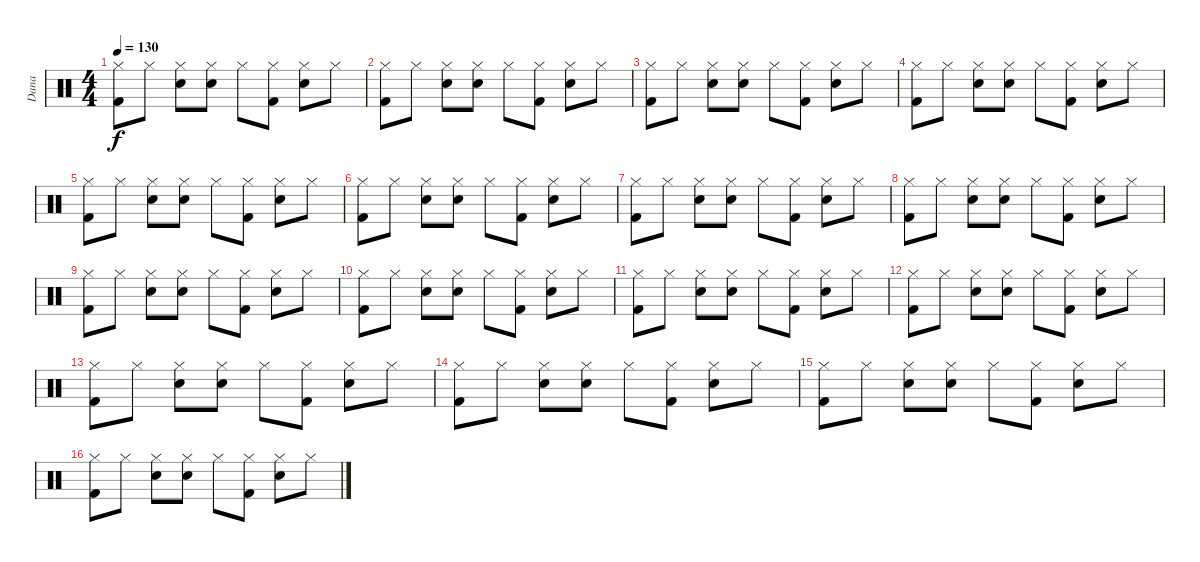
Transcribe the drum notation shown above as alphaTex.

\track ("Dana" "Dana") {instrument percussion}
\staff {score}
\articulation defaults
\ts (4 4)
\tempo 130
\clef neutral
\ks c
("Hi-Hat (closed)" "Kick (hit) 2").8{dy f} "Hi-Hat (closed)".8 ("Hi-Hat (closed)" "Snare (hit) 2").8 ("Hi-Hat (closed)" "Snare (hit) 2").8 "Hi-Hat (closed)".8 ("Hi-Hat (closed)" "Kick (hit) 2").8 ("Hi-Hat (closed)" "Snare (hit) 2").8 "Hi-Hat (closed)".8 |
("Hi-Hat (closed)" "Kick (hit) 2").8 "Hi-Hat (closed)".8 ("Hi-Hat (closed)" "Snare (hit) 2").8 ("Hi-Hat (closed)" "Snare (hit) 2").8 "Hi-Hat (closed)".8 ("Hi-Hat (closed)" "Kick (hit) 2").8 ("Hi-Hat (closed)" "Snare (hit) 2").8 "Hi-Hat (closed)".8 |
("Hi-Hat (closed)" "Kick (hit) 2").8 "Hi-Hat (closed)".8 ("Hi-Hat (closed)" "Snare (hit) 2").8 ("Hi-Hat (closed)" "Snare (hit) 2").8 "Hi-Hat (closed)".8 ("Hi-Hat (closed)" "Kick (hit) 2").8 ("Hi-Hat (closed)" "Snare (hit) 2").8 "Hi-Hat (closed)".8 |
("Hi-Hat (closed)" "Kick (hit) 2").8 "Hi-Hat (closed)".8 ("Hi-Hat (closed)" "Snare (hit) 2").8 ("Hi-Hat (closed)" "Snare (hit) 2").8 "Hi-Hat (closed)".8 ("Hi-Hat (closed)" "Kick (hit) 2").8 ("Hi-Hat (closed)" "Snare (hit) 2").8 "Hi-Hat (closed)".8 |
("Hi-Hat (closed)" "Kick (hit) 2").8 "Hi-Hat (closed)".8 ("Hi-Hat (closed)" "Snare (hit) 2").8 ("Hi-Hat (closed)" "Snare (hit) 2").8 "Hi-Hat (closed)".8 ("Hi-Hat (closed)" "Kick (hit) 2").8 ("Hi-Hat (closed)" "Snare (hit) 2").8 "Hi-Hat (closed)".8 |
("Hi-Hat (closed)" "Kick (hit) 2").8 "Hi-Hat (closed)".8 ("Hi-Hat (closed)" "Snare (hit) 2").8 ("Hi-Hat (closed)" "Snare (hit) 2").8 "Hi-Hat (closed)".8 ("Hi-Hat (closed)" "Kick (hit) 2").8 ("Hi-Hat (closed)" "Snare (hit) 2").8 "Hi-Hat (closed)".8 |
("Hi-Hat (closed)" "Kick (hit) 2").8 "Hi-Hat (closed)".8 ("Hi-Hat (closed)" "Snare (hit) 2").8 ("Hi-Hat (closed)" "Snare (hit) 2").8 "Hi-Hat (closed)".8 ("Hi-Hat (closed)" "Kick (hit) 2").8 ("Hi-Hat (closed)" "Snare (hit) 2").8 "Hi-Hat (closed)".8 |
("Hi-Hat (closed)" "Kick (hit) 2").8 "Hi-Hat (closed)".8 ("Hi-Hat (closed)" "Snare (hit) 2").8 ("Hi-Hat (closed)" "Snare (hit) 2").8 "Hi-Hat (closed)".8 ("Hi-Hat (closed)" "Kick (hit) 2").8 ("Hi-Hat (closed)" "Snare (hit) 2").8 "Hi-Hat (closed)".8 |
("Hi-Hat (closed)" "Kick (hit) 2").8 "Hi-Hat (closed)".8 ("Hi-Hat (closed)" "Snare (hit) 2").8 ("Hi-Hat (closed)" "Snare (hit) 2").8 "Hi-Hat (closed)".8 ("Hi-Hat (closed)" "Kick (hit) 2").8 ("Hi-Hat (closed)" "Snare (hit) 2").8 "Hi-Hat (closed)".8 |
("Hi-Hat (closed)" "Kick (hit) 2").8 "Hi-Hat (closed)".8 ("Hi-Hat (closed)" "Snare (hit) 2").8 ("Hi-Hat (closed)" "Snare (hit) 2").8 "Hi-Hat (closed)".8 ("Hi-Hat (closed)" "Kick (hit) 2").8 ("Hi-Hat (closed)" "Snare (hit) 2").8 "Hi-Hat (closed)".8 |
("Hi-Hat (closed)" "Kick (hit) 2").8 "Hi-Hat (closed)".8 ("Hi-Hat (closed)" "Snare (hit) 2").8 ("Hi-Hat (closed)" "Snare (hit) 2").8 "Hi-Hat (closed)".8 ("Hi-Hat (closed)" "Kick (hit) 2").8 ("Hi-Hat (closed)" "Snare (hit) 2").8 "Hi-Hat (closed)".8 |
("Hi-Hat (closed)" "Kick (hit) 2").8 "Hi-Hat (closed)".8 ("Hi-Hat (closed)" "Snare (hit) 2").8 ("Hi-Hat (closed)" "Snare (hit) 2").8 "Hi-Hat (closed)".8 ("Hi-Hat (closed)" "Kick (hit) 2").8 ("Hi-Hat (closed)" "Snare (hit) 2").8 "Hi-Hat (closed)".8 |
("Hi-Hat (closed)" "Kick (hit) 2").8 "Hi-Hat (closed)".8 ("Hi-Hat (closed)" "Snare (hit) 2").8 ("Hi-Hat (closed)" "Snare (hit) 2").8 "Hi-Hat (closed)".8 ("Hi-Hat (closed)" "Kick (hit) 2").8 ("Hi-Hat (closed)" "Snare (hit) 2").8 "Hi-Hat (closed)".8 |
("Hi-Hat (closed)" "Kick (hit) 2").8 "Hi-Hat (closed)".8 ("Hi-Hat (closed)" "Snare (hit) 2").8 ("Hi-Hat (closed)" "Snare (hit) 2").8 "Hi-Hat (closed)".8 ("Hi-Hat (closed)" "Kick (hit) 2").8 ("Hi-Hat (closed)" "Snare (hit) 2").8 "Hi-Hat (closed)".8 |
("Hi-Hat (closed)" "Kick (hit) 2").8 "Hi-Hat (closed)".8 ("Hi-Hat (closed)" "Snare (hit) 2").8 ("Hi-Hat (closed)" "Snare (hit) 2").8 "Hi-Hat (closed)".8 ("Hi-Hat (closed)" "Kick (hit) 2").8 ("Hi-Hat (closed)" "Snare (hit) 2").8 "Hi-Hat (closed)".8 |
("Hi-Hat (closed)" "Kick (hit) 2").8 "Hi-Hat (closed)".8 ("Hi-Hat (closed)" "Snare (hit) 2").8 ("Hi-Hat (closed)" "Snare (hit) 2").8 "Hi-Hat (closed)".8 ("Hi-Hat (closed)" "Kick (hit) 2").8 ("Hi-Hat (closed)" "Snare (hit) 2").8 "Hi-Hat (closed)".8
